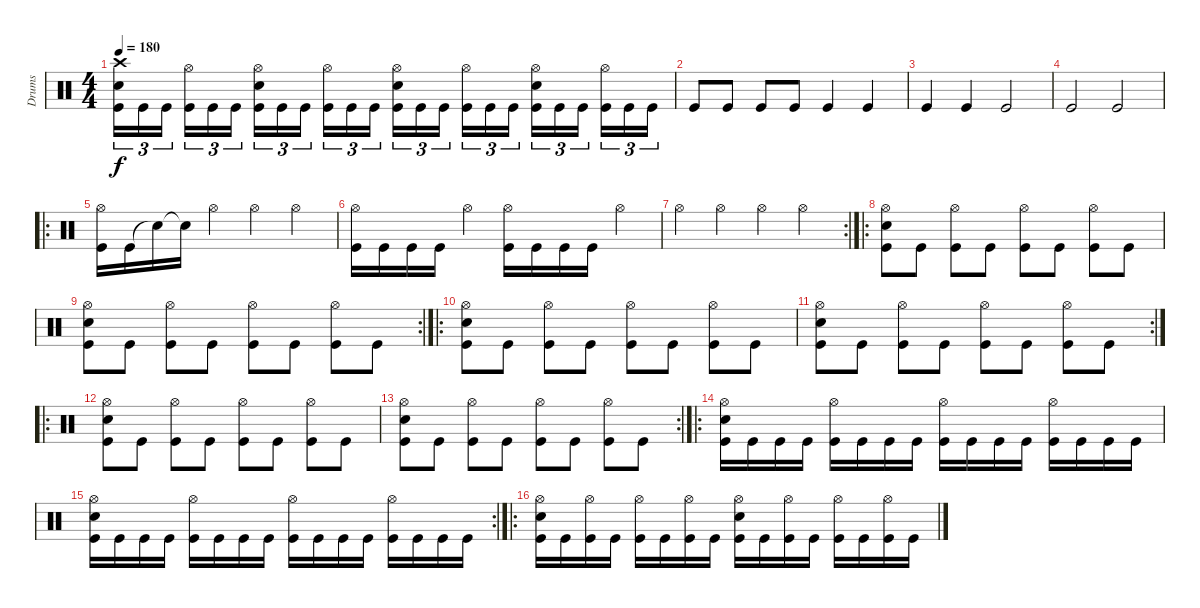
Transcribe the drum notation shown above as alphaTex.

\track ("Drums" "Drums") {instrument percussion}
\staff {score}
\articulation defaults
\ts (4 4)
\tempo 180
\clef neutral
\ks c
("Crash high (hit)" "Snare (hit) 2" "Kick (hit)").16{tu (3 2) dy f} "Kick (hit)".16{tu (3 2)} "Kick (hit)".16{tu (3 2)} ("Hi-Hat (open)" "Kick (hit)").16{tu (3 2)} "Kick (hit)".16{tu (3 2)} "Kick (hit)".16{tu (3 2)} ("Hi-Hat (open)" "Snare (hit) 2" "Kick (hit)").16{tu (3 2)} "Kick (hit)".16{tu (3 2)} "Kick (hit)".16{tu (3 2)} ("Hi-Hat (open)" "Kick (hit)").16{tu (3 2)} "Kick (hit)".16{tu (3 2)} "Kick (hit)".16{tu (3 2)} ("Hi-Hat (open)" "Snare (hit) 2" "Kick (hit)").16{tu (3 2)} "Kick (hit)".16{tu (3 2)} "Kick (hit)".16{tu (3 2)} ("Hi-Hat (open)" "Kick (hit)").16{tu (3 2)} "Kick (hit)".16{tu (3 2)} "Kick (hit)".16{tu (3 2)} ("Hi-Hat (open)" "Snare (hit) 2" "Kick (hit)").16{tu (3 2)} "Kick (hit)".16{tu (3 2)} "Kick (hit)".16{tu (3 2)} ("Hi-Hat (open)" "Kick (hit)").16{tu (3 2)} "Kick (hit)".16{tu (3 2)} "Kick (hit)".16{tu (3 2)} |
"Kick (hit)".8 "Kick (hit)".8 "Kick (hit)".8 "Kick (hit)".8 "Kick (hit)".4 "Kick (hit)".4 |
"Kick (hit)".4 "Kick (hit)".4 "Kick (hit)".2 |
"Kick (hit)".2 "Kick (hit)".2 |
\ro
("Hi-Hat (open)" "Kick (hit)").16 "Kick (hit)".16 "Snare (hit)"{t}.16 "Snare (hit)"{t}.16 "Hi-Hat (open)".4 "Hi-Hat (open)".4 "Hi-Hat (open)".4 |
("Hi-Hat (open)" "Kick (hit)").16 "Kick (hit)".16 "Kick (hit)".16 "Kick (hit)".16 "Hi-Hat (open)".4 ("Hi-Hat (open)" "Kick (hit)").16 "Kick (hit)".16 "Kick (hit)".16 "Kick (hit)".16 "Hi-Hat (open)".4 |
\rc 2 "Hi-Hat (open)".4 "Hi-Hat (open)".4 "Hi-Hat (open)".4 "Hi-Hat (open)".4
|
\ro
("Hi-Hat (open)" "Snare (hit) 2" "Kick (hit)").8 "Kick (hit)".8 ("Hi-Hat (open)" "Kick (hit)").8 "Kick (hit)".8 ("Hi-Hat (open)" "Kick (hit)").8 "Kick (hit)".8 ("Hi-Hat (open)" "Kick (hit)").8 "Kick (hit)".8 |
\rc 2
("Hi-Hat (open)" "Snare (hit) 2" "Kick (hit)").8 "Kick (hit)".8 ("Hi-Hat (open)" "Kick (hit)").8 "Kick (hit)".8 ("Hi-Hat (open)" "Kick (hit)").8 "Kick (hit)".8 ("Hi-Hat (open)" "Kick (hit)").8 "Kick (hit)".8 |
\ro
("Hi-Hat (open)" "Snare (hit) 2" "Kick (hit)").8 "Kick (hit)".8 ("Hi-Hat (open)" "Kick (hit)").8 "Kick (hit)".8 ("Hi-Hat (open)" "Kick (hit)").8 "Kick (hit)".8 ("Hi-Hat (open)" "Kick (hit)").8 "Kick (hit)".8 |
\rc 2
("Hi-Hat (open)" "Snare (hit) 2" "Kick (hit)").8 "Kick (hit)".8 ("Hi-Hat (open)" "Kick (hit)").8 "Kick (hit)".8 ("Hi-Hat (open)" "Kick (hit)").8 "Kick (hit)".8 ("Hi-Hat (open)" "Kick (hit)").8 "Kick (hit)".8 |
\ro
("Hi-Hat (open)" "Snare (hit) 2" "Kick (hit)").8 "Kick (hit)".8 ("Hi-Hat (open)" "Kick (hit)").8 "Kick (hit)".8 ("Hi-Hat (open)" "Kick (hit)").8 "Kick (hit)".8 ("Hi-Hat (open)" "Kick (hit)").8 "Kick (hit)".8 |
\rc 2
("Hi-Hat (open)" "Snare (hit) 2" "Kick (hit)").8 "Kick (hit)".8 ("Hi-Hat (open)" "Kick (hit)").8 "Kick (hit)".8 ("Hi-Hat (open)" "Kick (hit)").8 "Kick (hit)".8 ("Hi-Hat (open)" "Kick (hit)").8 "Kick (hit)".8 |
\ro
("Hi-Hat (open)" "Snare (hit) 2" "Kick (hit)").16 "Kick (hit)".16 "Kick (hit)".16 "Kick (hit)".16 ("Hi-Hat (open)" "Kick (hit)").16 "Kick (hit)".16 "Kick (hit)".16 "Kick (hit)".16 ("Hi-Hat (open)" "Kick (hit)").16 "Kick (hit)".16 "Kick (hit)".16 "Kick (hit)".16 ("Hi-Hat (open)" "Kick (hit)").16 "Kick (hit)".16 "Kick (hit)".16 "Kick (hit)".16 |
\rc 2
("Hi-Hat (open)" "Snare (hit) 2" "Kick (hit)").16 "Kick (hit)".16 "Kick (hit)".16 "Kick (hit)".16 ("Hi-Hat (open)" "Kick (hit)").16 "Kick (hit)".16 "Kick (hit)".16 "Kick (hit)".16 ("Hi-Hat (open)" "Kick (hit)").16 "Kick (hit)".16 "Kick (hit)".16 "Kick (hit)".16 ("Hi-Hat (open)" "Kick (hit)").16 "Kick (hit)".16 "Kick (hit)".16 "Kick (hit)".16 |
\ro
("Hi-Hat (open)" "Snare (hit) 2" "Kick (hit)").16 "Kick (hit)".16 ("Hi-Hat (open)" "Kick (hit)").16 "Kick (hit)".16 ("Hi-Hat (open)" "Kick (hit)").16 "Kick (hit)".16 ("Hi-Hat (open)" "Kick (hit)").16 "Kick (hit)".16 ("Hi-Hat (open)" "Snare (hit) 2" "Kick (hit)").16 "Kick (hit)".16 ("Hi-Hat (open)" "Kick (hit)").16 "Kick (hit)".16 ("Hi-Hat (open)" "Kick (hit)").16 "Kick (hit)".16 ("Hi-Hat (open)" "Kick (hit)").16 "Kick (hit)".16
